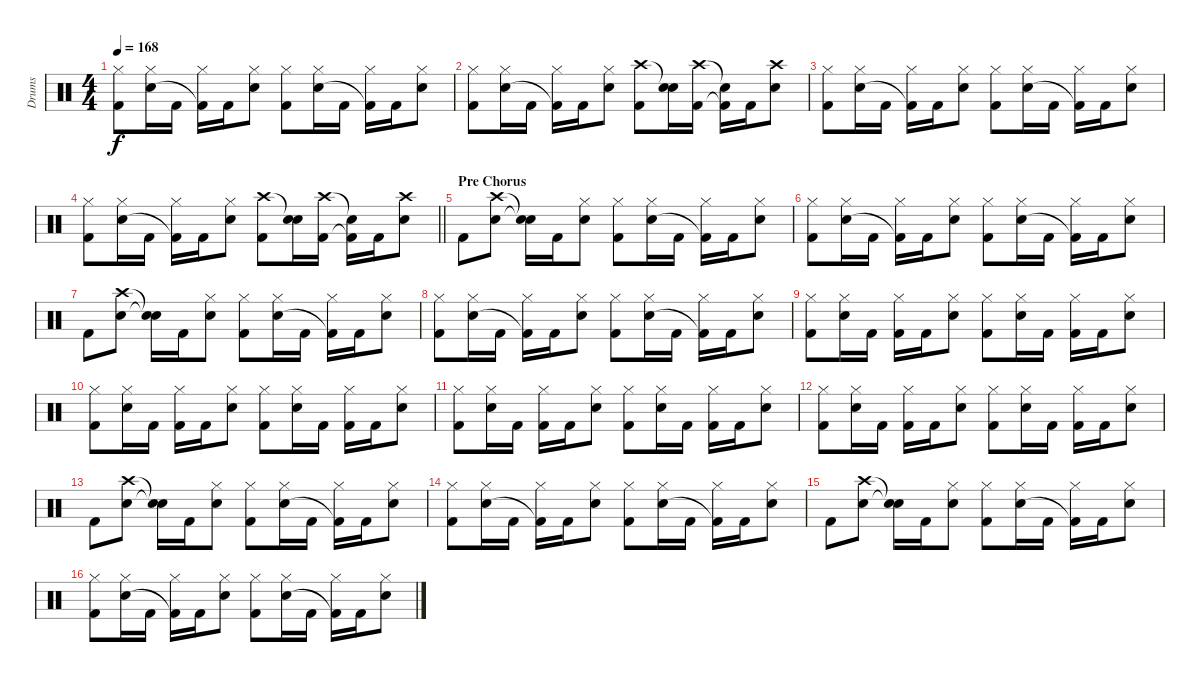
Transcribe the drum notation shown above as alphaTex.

\track ("Drums" "Drums") {instrument percussion}
\staff {score}
\articulation defaults
\ts (4 4)
\tempo 168
\clef neutral
\ks c
("Hi-Hat (closed)" "Kick (hit) 2").8{dy f} ("Hi-Hat (closed)" "Electric Snare (hit)").16 "Kick (hit) 2".16 ("Hi-Hat (closed)" "Kick (hit) 2"{t}).16 "Kick (hit) 2".16 ("Hi-Hat (closed)" "Electric Snare (hit)").8 ("Hi-Hat (closed)" "Kick (hit) 2").8 ("Hi-Hat (closed)" "Electric Snare (hit)").16 "Kick (hit) 2".16 ("Hi-Hat (closed)" "Kick (hit) 2"{t}).16 "Kick (hit) 2".16 ("Hi-Hat (closed)" "Electric Snare (hit)").8 |
("Hi-Hat (closed)" "Kick (hit) 2").8 ("Hi-Hat (closed)" "Electric Snare (hit)").16 "Kick (hit) 2".16 ("Hi-Hat (closed)" "Kick (hit) 2"{t}).16 "Kick (hit) 2".16 ("Hi-Hat (closed)" "Electric Snare (hit)").8 ("Crash high (hit)" "Kick (hit) 2").8 ("Snare (hit)"{t} "Electric Snare (hit)").16 ("Crash high (hit)" "Kick (hit) 2").16 ("Snare (hit)"{t} "Kick (hit) 2"{t}).16 "Kick (hit) 2".16 ("Crash high (hit)" "Electric Snare (hit)").8 |
("Hi-Hat (closed)" "Kick (hit) 2").8 ("Hi-Hat (closed)" "Electric Snare (hit)").16 "Kick (hit) 2".16 ("Hi-Hat (closed)" "Kick (hit) 2"{t}).16 "Kick (hit) 2".16 ("Hi-Hat (closed)" "Electric Snare (hit)").8 ("Hi-Hat (closed)" "Kick (hit) 2").8 ("Hi-Hat (closed)" "Electric Snare (hit)").16 "Kick (hit) 2".16 ("Hi-Hat (closed)" "Kick (hit) 2"{t}).16 "Kick (hit) 2".16 ("Hi-Hat (closed)" "Electric Snare (hit)").8 |
\barLineRight lightlight
("Hi-Hat (closed)" "Kick (hit) 2").8 ("Hi-Hat (closed)" "Electric Snare (hit)").16 "Kick (hit) 2".16 ("Hi-Hat (closed)" "Kick (hit) 2"{t}).16 "Kick (hit) 2".16 ("Hi-Hat (closed)" "Electric Snare (hit)").8 ("Crash high (hit)" "Kick (hit) 2").8 ("Snare (hit)"{t} "Electric Snare (hit)").16 ("Crash high (hit)" "Kick (hit) 2").16 ("Snare (hit)"{t} "Kick (hit) 2"{t}).16 "Kick (hit) 2".16 ("Crash high (hit)" "Electric Snare (hit)").8 |
\section ("" "Pre Chorus")
"Kick (hit) 2".8 ("Crash high (hit)" "Electric Snare (hit)").8 ("Snare (hit)"{t} "Snare (hit)"{t}).16 "Kick (hit) 2".16 ("Hi-Hat (closed)" "Electric Snare (hit)").8 ("Hi-Hat (closed)" "Kick (hit) 2").8 ("Hi-Hat (closed)" "Electric Snare (hit)").16 "Kick (hit) 2".16 ("Hi-Hat (closed)" "Kick (hit) 2"{t}).16 "Kick (hit) 2".16 ("Hi-Hat (closed)" "Electric Snare (hit)").8 |
("Hi-Hat (closed)" "Kick (hit) 2").8 ("Hi-Hat (closed)" "Electric Snare (hit)").16 "Kick (hit) 2".16 ("Hi-Hat (closed)" "Kick (hit) 2"{t}).16 "Kick (hit) 2".16 ("Hi-Hat (closed)" "Electric Snare (hit)").8 ("Hi-Hat (closed)" "Kick (hit) 2").8 ("Hi-Hat (closed)" "Electric Snare (hit)").16 "Kick (hit) 2".16 ("Hi-Hat (closed)" "Kick (hit) 2"{t}).16 "Kick (hit) 2".16 ("Hi-Hat (closed)" "Electric Snare (hit)").8 |
"Kick (hit) 2".8 ("Crash high (hit)" "Electric Snare (hit)").8 ("Snare (hit)"{t} "Snare (hit)"{t}).16 "Kick (hit) 2".16 ("Hi-Hat (closed)" "Electric Snare (hit)").8 ("Hi-Hat (closed)" "Kick (hit) 2").8 ("Hi-Hat (closed)" "Electric Snare (hit)").16 "Kick (hit) 2".16 ("Hi-Hat (closed)" "Kick (hit) 2"{t}).16 "Kick (hit) 2".16 ("Hi-Hat (closed)" "Electric Snare (hit)").8 |
("Hi-Hat (closed)" "Kick (hit) 2").8 ("Hi-Hat (closed)" "Electric Snare (hit)").16 "Kick (hit) 2".16 ("Hi-Hat (closed)" "Kick (hit) 2"{t}).16 "Kick (hit) 2".16 ("Hi-Hat (closed)" "Electric Snare (hit)").8 ("Hi-Hat (closed)" "Kick (hit) 2").8 ("Hi-Hat (closed)" "Electric Snare (hit)").16 "Kick (hit) 2".16 ("Hi-Hat (closed)" "Kick (hit) 2"{t}).16 "Kick (hit) 2".16 ("Hi-Hat (closed)" "Electric Snare (hit)").8 |
("Hi-Hat (closed)" "Kick (hit) 2").8 ("Hi-Hat (closed)" "Electric Snare (hit)").16 "Kick (hit) 2".16 ("Hi-Hat (closed)" "Kick (hit) 2").16 "Kick (hit) 2".16 ("Hi-Hat (closed)" "Electric Snare (hit)").8 ("Hi-Hat (closed)" "Kick (hit) 2").8 ("Hi-Hat (closed)" "Electric Snare (hit)").16 "Kick (hit) 2".16 ("Hi-Hat (closed)" "Kick (hit) 2").16 "Kick (hit) 2".16 ("Hi-Hat (closed)" "Electric Snare (hit)").8 |
("Hi-Hat (closed)" "Kick (hit) 2").8 ("Hi-Hat (closed)" "Electric Snare (hit)").16 "Kick (hit) 2".16 ("Hi-Hat (closed)" "Kick (hit) 2").16 "Kick (hit) 2".16 ("Hi-Hat (closed)" "Electric Snare (hit)").8 ("Hi-Hat (closed)" "Kick (hit) 2").8 ("Hi-Hat (closed)" "Electric Snare (hit)").16 "Kick (hit) 2".16 ("Hi-Hat (closed)" "Kick (hit) 2").16 "Kick (hit) 2".16 ("Hi-Hat (closed)" "Electric Snare (hit)").8 |
("Hi-Hat (closed)" "Kick (hit) 2").8 ("Hi-Hat (closed)" "Electric Snare (hit)").16 "Kick (hit) 2".16 ("Hi-Hat (closed)" "Kick (hit) 2").16 "Kick (hit) 2".16 ("Hi-Hat (closed)" "Electric Snare (hit)").8 ("Hi-Hat (closed)" "Kick (hit) 2").8 ("Hi-Hat (closed)" "Electric Snare (hit)").16 "Kick (hit) 2".16 ("Hi-Hat (closed)" "Kick (hit) 2").16 "Kick (hit) 2".16 ("Hi-Hat (closed)" "Electric Snare (hit)").8 |
("Hi-Hat (closed)" "Kick (hit) 2").8 ("Hi-Hat (closed)" "Electric Snare (hit)").16 "Kick (hit) 2".16 ("Hi-Hat (closed)" "Kick (hit) 2").16 "Kick (hit) 2".16 ("Hi-Hat (closed)" "Electric Snare (hit)").8 ("Hi-Hat (closed)" "Kick (hit) 2").8 ("Hi-Hat (closed)" "Electric Snare (hit)").16 "Kick (hit) 2".16 ("Hi-Hat (closed)" "Kick (hit) 2").16 "Kick (hit) 2".16 ("Hi-Hat (closed)" "Electric Snare (hit)").8 |
"Kick (hit) 2".8 ("Crash high (hit)" "Electric Snare (hit)").8 ("Snare (hit)"{t} "Snare (hit)"{t}).16 "Kick (hit) 2".16 ("Hi-Hat (closed)" "Electric Snare (hit)").8 ("Hi-Hat (closed)" "Kick (hit) 2").8 ("Hi-Hat (closed)" "Electric Snare (hit)").16 "Kick (hit) 2".16 ("Hi-Hat (closed)" "Kick (hit) 2"{t}).16 "Kick (hit) 2".16 ("Hi-Hat (closed)" "Electric Snare (hit)").8 |
("Hi-Hat (closed)" "Kick (hit) 2").8 ("Hi-Hat (closed)" "Electric Snare (hit)").16 "Kick (hit) 2".16 ("Hi-Hat (closed)" "Kick (hit) 2"{t}).16 "Kick (hit) 2".16 ("Hi-Hat (closed)" "Electric Snare (hit)").8 ("Hi-Hat (closed)" "Kick (hit) 2").8 ("Hi-Hat (closed)" "Electric Snare (hit)").16 "Kick (hit) 2".16 ("Hi-Hat (closed)" "Kick (hit) 2"{t}).16 "Kick (hit) 2".16 ("Hi-Hat (closed)" "Electric Snare (hit)").8 |
"Kick (hit) 2".8 ("Crash high (hit)" "Electric Snare (hit)").8 ("Snare (hit)"{t} "Snare (hit)"{t}).16 "Kick (hit) 2".16 ("Hi-Hat (closed)" "Electric Snare (hit)").8 ("Hi-Hat (closed)" "Kick (hit) 2").8 ("Hi-Hat (closed)" "Electric Snare (hit)").16 "Kick (hit) 2".16 ("Hi-Hat (closed)" "Kick (hit) 2"{t}).16 "Kick (hit) 2".16 ("Hi-Hat (closed)" "Electric Snare (hit)").8 |
("Hi-Hat (closed)" "Kick (hit) 2").8 ("Hi-Hat (closed)" "Electric Snare (hit)").16 "Kick (hit) 2".16 ("Hi-Hat (closed)" "Kick (hit) 2"{t}).16 "Kick (hit) 2".16 ("Hi-Hat (closed)" "Electric Snare (hit)").8 ("Hi-Hat (closed)" "Kick (hit) 2").8 ("Hi-Hat (closed)" "Electric Snare (hit)").16 "Kick (hit) 2".16 ("Hi-Hat (closed)" "Kick (hit) 2"{t}).16 "Kick (hit) 2".16 ("Hi-Hat (closed)" "Electric Snare (hit)").8
